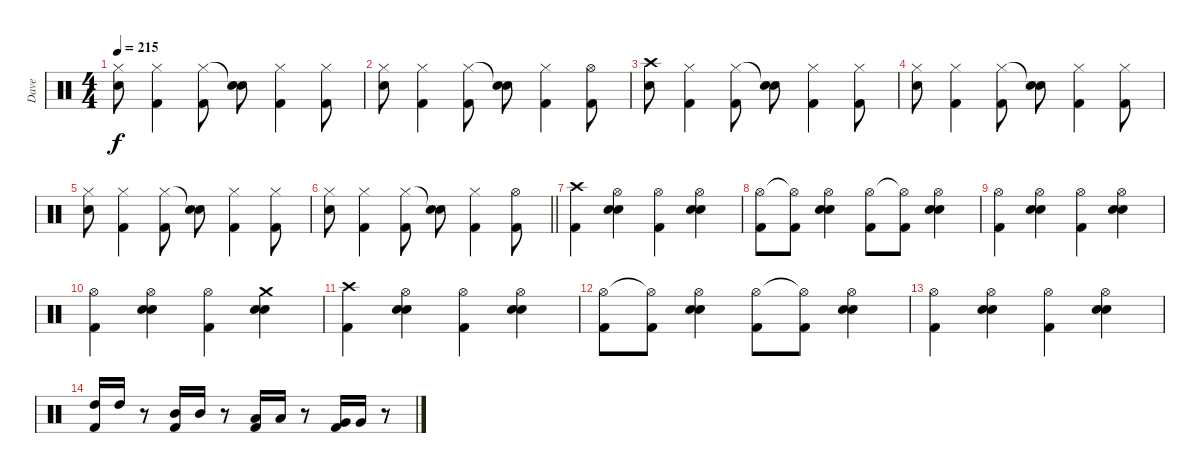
\track ("Dave" "Dave") {instrument percussion}
\staff {score}
\articulation defaults
\ts (4 4)
\tempo 215
\clef neutral
\ks c
("Hi-Hat (closed)" "Electric Snare (hit)").8{dy f} ("Hi-Hat (closed)" "Kick (hit) 2").4 ("Hi-Hat (closed)" "Kick (hit) 2").8 ("Snare (hit)"{t} "Electric Snare (hit)").8 ("Hi-Hat (closed)" "Kick (hit) 2").4 ("Hi-Hat (closed)" "Kick (hit) 2").8 |
("Hi-Hat (closed)" "Electric Snare (hit)").8 ("Hi-Hat (closed)" "Kick (hit) 2").4 ("Hi-Hat (closed)" "Kick (hit) 2").8 ("Snare (hit)"{t} "Electric Snare (hit)").8 ("Hi-Hat (closed)" "Kick (hit) 2").4 ("Hi-Hat (open)" "Kick (hit) 2").8 |
("Crash high (hit)" "Electric Snare (hit)").8 ("Hi-Hat (closed)" "Kick (hit) 2").4 ("Hi-Hat (closed)" "Kick (hit) 2").8 ("Snare (hit)"{t} "Electric Snare (hit)").8 ("Hi-Hat (closed)" "Kick (hit) 2").4 ("Hi-Hat (closed)" "Kick (hit) 2").8 |
("Hi-Hat (closed)" "Electric Snare (hit)").8 ("Hi-Hat (closed)" "Kick (hit) 2").4 ("Hi-Hat (closed)" "Kick (hit) 2").8 ("Snare (hit)"{t} "Electric Snare (hit)").8 ("Hi-Hat (closed)" "Kick (hit) 2").4 ("Hi-Hat (closed)" "Kick (hit) 2").8 |
("Hi-Hat (closed)" "Electric Snare (hit)").8 ("Hi-Hat (closed)" "Kick (hit) 2").4 ("Hi-Hat (closed)" "Kick (hit) 2").8 ("Snare (hit)"{t} "Electric Snare (hit)").8 ("Hi-Hat (closed)" "Kick (hit) 2").4 ("Hi-Hat (closed)" "Kick (hit) 2").8 |
\barLineRight lightlight
("Hi-Hat (closed)" "Electric Snare (hit)").8 ("Hi-Hat (closed)" "Kick (hit) 2").4 ("Hi-Hat (closed)" "Kick (hit) 2").8 ("Snare (hit)"{t} "Electric Snare (hit)").8 ("Hi-Hat (closed)" "Kick (hit) 2").4 ("Hi-Hat (open)" "Kick (hit) 2").8 |
("Crash high (hit)" "Kick (hit) 2").4 ("Hi-Hat (open)" "Electric Snare (hit)" "Electric Snare (hit)").4 ("Hi-Hat (open)" "Kick (hit) 2").4 ("Hi-Hat (open)" "Electric Snare (hit)" "Electric Snare (hit)").4 |
("Hi-Hat (open)" "Kick (hit) 2").8 ("Hi-Hat (open)"{t} "Kick (hit) 2").8 ("Hi-Hat (open)" "Electric Snare (hit)" "Electric Snare (hit)").4 ("Hi-Hat (open)" "Kick (hit) 2").8 ("Hi-Hat (open)"{t} "Kick (hit) 2").8 ("Hi-Hat (open)" "Electric Snare (hit)" "Electric Snare (hit)").4 |
("Hi-Hat (open)" "Kick (hit) 2").4 ("Hi-Hat (open)" "Electric Snare (hit)" "Electric Snare (hit)").4 ("Hi-Hat (open)" "Kick (hit) 2").4 ("Hi-Hat (open)" "Electric Snare (hit)" "Electric Snare (hit)").4 |
("Hi-Hat (open)" "Kick (hit) 2").4 ("Hi-Hat (open)" "Electric Snare (hit)" "Electric Snare (hit)").4 ("Hi-Hat (open)" "Kick (hit) 2").4 ("Crash medium (hit)" "Electric Snare (hit)" "Electric Snare (hit)").4 |
("Crash high (hit)" "Kick (hit) 2").4 ("Hi-Hat (open)" "Electric Snare (hit)" "Electric Snare (hit)").4 ("Hi-Hat (open)" "Kick (hit) 2").4 ("Hi-Hat (open)" "Electric Snare (hit)" "Electric Snare (hit)").4 |
("Hi-Hat (open)" "Kick (hit) 2").8 ("Hi-Hat (open)"{t} "Kick (hit) 2").8 ("Hi-Hat (open)" "Electric Snare (hit)" "Electric Snare (hit)").4 ("Hi-Hat (open)" "Kick (hit) 2").8 ("Hi-Hat (open)"{t} "Kick (hit) 2").8 ("Hi-Hat (open)" "Electric Snare (hit)" "Electric Snare (hit)").4 |
("Hi-Hat (open)" "Kick (hit) 2").4 ("Hi-Hat (open)" "Electric Snare (hit)" "Electric Snare (hit)").4 ("Hi-Hat (open)" "Kick (hit) 2").4 ("Hi-Hat (open)" "Electric Snare (hit)" "Electric Snare (hit)").4 |
("Kick (hit) 2" "High Tom (hit)").16 "High Tom (hit)".16 r.8 ("Kick (hit) 2" "Mid Tom (hit)").16 "Mid Tom (hit)".16 r.8 ("Kick (hit) 2" "Low Tom (hit)").16 "Low Tom (hit)".16 r.8 ("Kick (hit) 2" "Very Low Tom (hit)").16 "Very Low Tom (hit)".16 r.8
